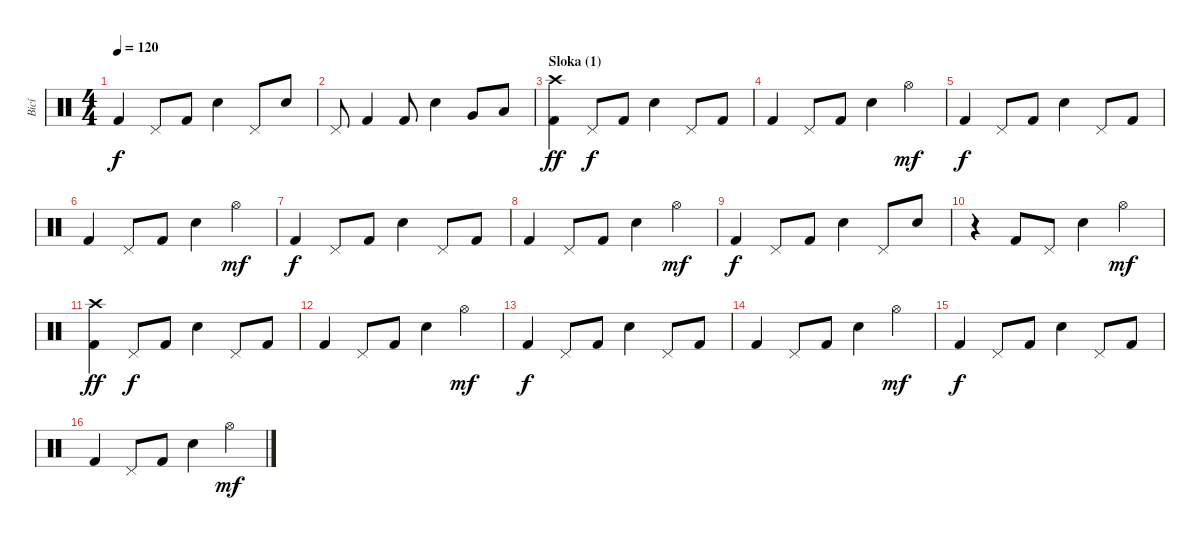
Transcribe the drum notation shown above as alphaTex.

\track ("Bicí" "Bicí") {instrument percussion}
\staff {score}
\articulation defaults
\ts (4 4)
\tempo 120
\clef neutral
\ks c "Kick (hit) 2".4{dy f} "Pedal Hi-Hat (hit)".8 "Kick (hit) 2".8 "Snare (hit) 2".4 "Pedal Hi-Hat (hit)".8 "Snare (hit) 2".8
|
"Pedal Hi-Hat (hit)".8 "Kick (hit) 2".4 "Kick (hit) 2".8 "Snare (hit) 2".4 "Very Low Tom (hit)".8 "Low Floor Tom (hit)".8 |
\section ("" "Sloka (1)")
("Crash high (hit)" "Kick (hit) 2").4{dy ff} "Pedal Hi-Hat (hit)".8{dy f} "Kick (hit) 2".8 "Snare (hit) 2".4 "Pedal Hi-Hat (hit)".8 "Kick (hit) 2".8 |
"Kick (hit) 2".4 "Pedal Hi-Hat (hit)".8 "Kick (hit) 2".8 "Snare (hit) 2".4 "Hi-Hat (open)".4{dy mf} |
"Kick (hit) 2".4{dy f} "Pedal Hi-Hat (hit)".8 "Kick (hit) 2".8 "Snare (hit) 2".4 "Pedal Hi-Hat (hit)".8 "Kick (hit) 2".8 |
"Kick (hit) 2".4 "Pedal Hi-Hat (hit)".8 "Kick (hit) 2".8 "Snare (hit) 2".4 "Hi-Hat (open)".4{dy mf} |
"Kick (hit) 2".4{dy f} "Pedal Hi-Hat (hit)".8 "Kick (hit) 2".8 "Snare (hit) 2".4 "Pedal Hi-Hat (hit)".8 "Kick (hit) 2".8 |
"Kick (hit) 2".4 "Pedal Hi-Hat (hit)".8 "Kick (hit) 2".8 "Snare (hit) 2".4 "Hi-Hat (open)".4{dy mf} |
"Kick (hit) 2".4{dy f} "Pedal Hi-Hat (hit)".8 "Kick (hit) 2".8 "Snare (hit) 2".4 "Pedal Hi-Hat (hit)".8 "Snare (hit) 2".8 |
r.4 "Kick (hit) 2".8 "Pedal Hi-Hat (hit)".8 "Snare (hit) 2".4 "Hi-Hat (open)".4{dy mf} |
("Crash high (hit)" "Kick (hit) 2").4{dy ff} "Pedal Hi-Hat (hit)".8{dy f} "Kick (hit) 2".8 "Snare (hit) 2".4 "Pedal Hi-Hat (hit)".8 "Kick (hit) 2".8 |
"Kick (hit) 2".4 "Pedal Hi-Hat (hit)".8 "Kick (hit) 2".8 "Snare (hit) 2".4 "Hi-Hat (open)".4{dy mf} |
"Kick (hit) 2".4{dy f} "Pedal Hi-Hat (hit)".8 "Kick (hit) 2".8 "Snare (hit) 2".4 "Pedal Hi-Hat (hit)".8 "Kick (hit) 2".8 |
"Kick (hit) 2".4 "Pedal Hi-Hat (hit)".8 "Kick (hit) 2".8 "Snare (hit) 2".4 "Hi-Hat (open)".4{dy mf} |
"Kick (hit) 2".4{dy f} "Pedal Hi-Hat (hit)".8 "Kick (hit) 2".8 "Snare (hit) 2".4 "Pedal Hi-Hat (hit)".8 "Kick (hit) 2".8 |
"Kick (hit) 2".4 "Pedal Hi-Hat (hit)".8 "Kick (hit) 2".8 "Snare (hit) 2".4 "Hi-Hat (open)".4{dy mf}
